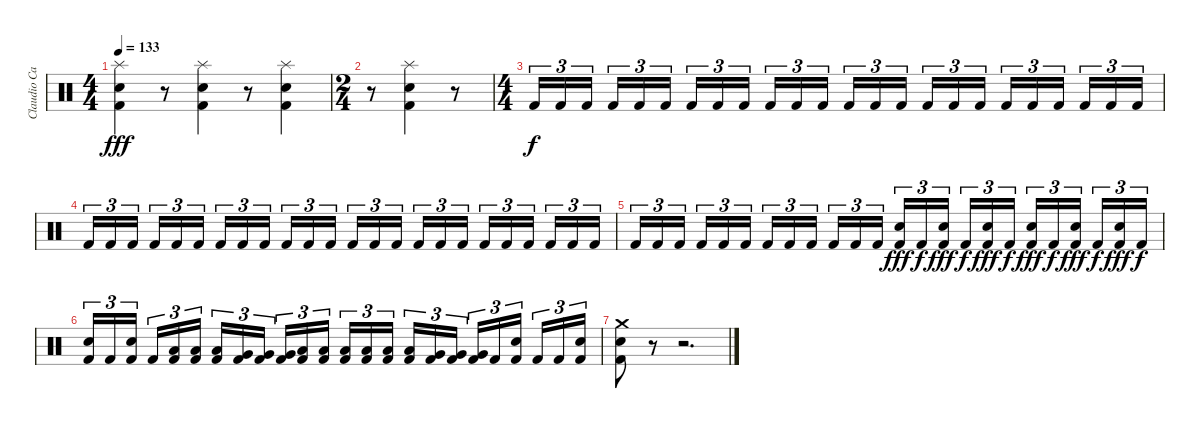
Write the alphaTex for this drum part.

\track ("Claudio Cardaci (bateria)" "Claudio Ca") {instrument percussion}
\staff {score}
\articulation defaults
\ts (4 4)
\tempo 133
\clef neutral
\ks c
("Splash (hit)" "Snare (hit) 2" "Kick (hit) 2").4{dy fff} r.8 ("Splash (hit)" "Snare (hit) 2" "Kick (hit) 2").4 r.8 ("Splash (hit)" "Snare (hit) 2" "Kick (hit) 2").4 |
\ts (2 4)
r.8 ("Splash (hit)" "Snare (hit) 2" "Kick (hit) 2").4 r.8 |
\ts (4 4)
"Kick (hit) 2".16{tu (3 2) dy f} "Kick (hit) 2".16{tu (3 2)} "Kick (hit) 2".16{tu (3 2)} "Kick (hit) 2".16{tu (3 2)} "Kick (hit) 2".16{tu (3 2)} "Kick (hit) 2".16{tu (3 2)} "Kick (hit) 2".16{tu (3 2)} "Kick (hit) 2".16{tu (3 2)} "Kick (hit) 2".16{tu (3 2)} "Kick (hit) 2".16{tu (3 2)} "Kick (hit) 2".16{tu (3 2)} "Kick (hit) 2".16{tu (3 2)} "Kick (hit) 2".16{tu (3 2)} "Kick (hit) 2".16{tu (3 2)} "Kick (hit) 2".16{tu (3 2)} "Kick (hit) 2".16{tu (3 2)} "Kick (hit) 2".16{tu (3 2)} "Kick (hit) 2".16{tu (3 2)} "Kick (hit) 2".16{tu (3 2)} "Kick (hit) 2".16{tu (3 2)} "Kick (hit) 2".16{tu (3 2)} "Kick (hit) 2".16{tu (3 2)} "Kick (hit) 2".16{tu (3 2)} "Kick (hit) 2".16{tu (3 2)} |
"Kick (hit) 2".16{tu (3 2)} "Kick (hit) 2".16{tu (3 2)} "Kick (hit) 2".16{tu (3 2)} "Kick (hit) 2".16{tu (3 2)} "Kick (hit) 2".16{tu (3 2)} "Kick (hit) 2".16{tu (3 2)} "Kick (hit) 2".16{tu (3 2)} "Kick (hit) 2".16{tu (3 2)} "Kick (hit) 2".16{tu (3 2)} "Kick (hit) 2".16{tu (3 2)} "Kick (hit) 2".16{tu (3 2)} "Kick (hit) 2".16{tu (3 2)} "Kick (hit) 2".16{tu (3 2)} "Kick (hit) 2".16{tu (3 2)} "Kick (hit) 2".16{tu (3 2)} "Kick (hit) 2".16{tu (3 2)} "Kick (hit) 2".16{tu (3 2)} "Kick (hit) 2".16{tu (3 2)} "Kick (hit) 2".16{tu (3 2)} "Kick (hit) 2".16{tu (3 2)} "Kick (hit) 2".16{tu (3 2)} "Kick (hit) 2".16{tu (3 2)} "Kick (hit) 2".16{tu (3 2)} "Kick (hit) 2".16{tu (3 2)} |
"Kick (hit) 2".16{tu (3 2)} "Kick (hit) 2".16{tu (3 2)} "Kick (hit) 2".16{tu (3 2)} "Kick (hit) 2".16{tu (3 2)} "Kick (hit) 2".16{tu (3 2)} "Kick (hit) 2".16{tu (3 2)} "Kick (hit) 2".16{tu (3 2)} "Kick (hit) 2".16{tu (3 2)} "Kick (hit) 2".16{tu (3 2)} "Kick (hit) 2".16{tu (3 2)} "Kick (hit) 2".16{tu (3 2)} "Kick (hit) 2".16{tu (3 2)} ("Electric Snare (hit)" "Kick (hit) 2").16{tu (3 2) dy fff} "Kick (hit) 2".16{tu (3 2) dy f} ("Electric Snare (hit)" "Kick (hit) 2").16{tu (3 2) dy fff} "Kick (hit) 2".16{tu (3 2) dy f} ("Electric Snare (hit)" "Kick (hit) 2").16{tu (3 2) dy fff} "Kick (hit) 2".16{tu (3 2) dy f} ("Electric Snare (hit)" "Kick (hit) 2").16{tu (3 2) dy fff} "Kick (hit) 2".16{tu (3 2) dy f} ("Electric Snare (hit)" "Kick (hit) 2").16{tu (3 2) dy fff} "Kick (hit) 2".16{tu (3 2) dy f} ("Electric Snare (hit)" "Kick (hit) 2").16{tu (3 2) dy fff} "Kick (hit) 2".16{tu (3 2) dy f} |
("Electric Snare (hit)" "Kick (hit) 2").16{tu (3 2)} "Kick (hit) 2".16{tu (3 2)} ("Electric Snare (hit)" "Kick (hit) 2").16{tu (3 2)} "Kick (hit) 2".16{tu (3 2)} ("Low Tom (hit)" "Kick (hit) 2").16{tu (3 2)} ("Low Tom (hit)" "Kick (hit) 2").16{tu (3 2)} ("Low Tom (hit)" "Kick (hit) 2").16{tu (3 2)} ("Very Low Tom (hit)" "Kick (hit) 2").16{tu (3 2)} ("Very Low Tom (hit)" "Kick (hit) 2").16{tu (3 2)} ("Very Low Tom (hit)" "Kick (hit) 2").16{tu (3 2)} ("Low Tom (hit)" "Kick (hit) 2").16{tu (3 2)} ("Low Tom (hit)" "Kick (hit) 2").16{tu (3 2)} ("Low Tom (hit)" "Kick (hit) 2").16{tu (3 2)} ("Low Floor Tom (hit)" "Kick (hit) 2").16{tu (3 2)} ("Low Floor Tom (hit)" "Kick (hit) 2").16{tu (3 2)} ("Low Floor Tom (hit)" "Kick (hit) 2").16{tu (3 2)} ("Very Low Tom (hit)" "Kick (hit) 2").16{tu (3 2)} ("Very Low Tom (hit)" "Kick (hit) 2").16{tu (3 2)} ("Very Low Tom (hit)" "Kick (hit) 2").16{tu (3 2)} "Kick (hit) 2".16{tu (3 2)} ("Electric Snare (hit)" "Kick (hit) 2").16{tu (3 2)} "Kick (hit) 2".16{tu (3 2)} "Kick (hit) 2".16{tu (3 2)} ("Electric Snare (hit)" "Kick (hit) 2").16{tu (3 2)} |
("Crash medium (hit)" "Snare (hit) 2" "Kick (hit) 2").8 r.8 r.2{d}
